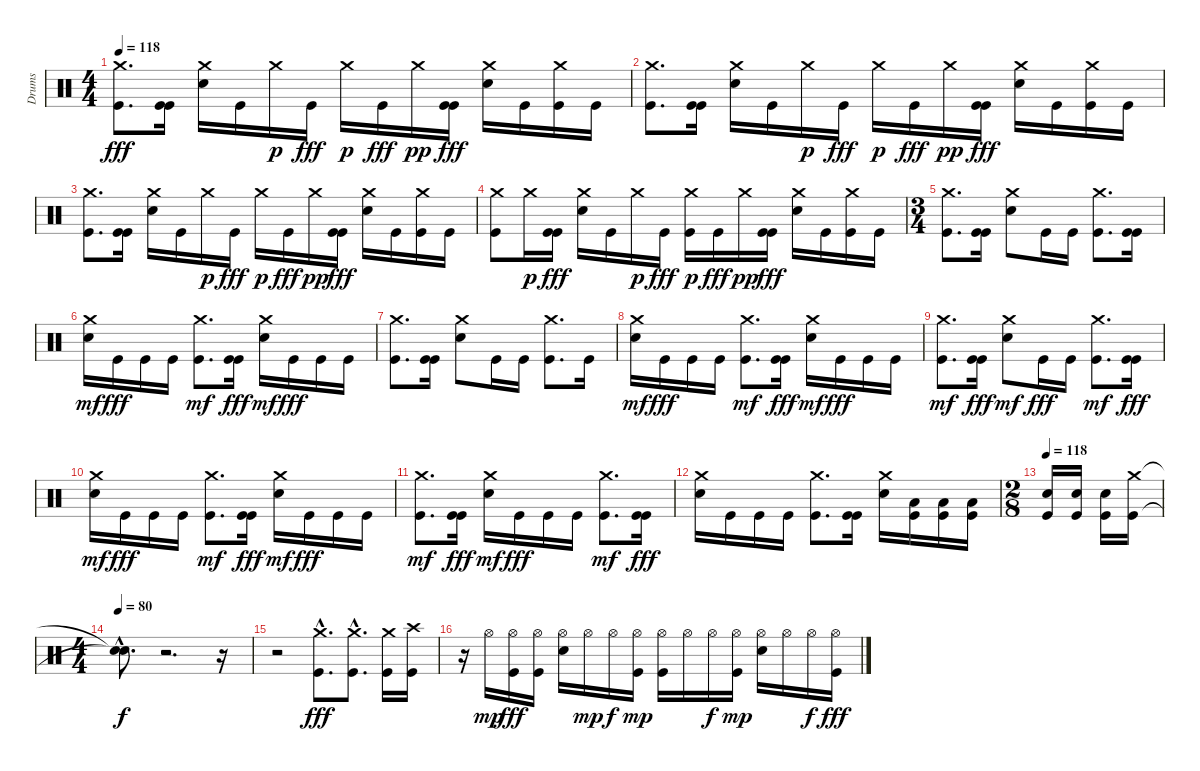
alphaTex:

\track ("Drums" "Drums") {instrument percussion}
\staff {score}
\articulation defaults
\ts (4 4)
\tempo 118
\clef neutral
\ks c
("Crash medium (hit)" "Kick (hit)").8{d dy fff} ("Kick (hit)" "Kick (hit)").16 ("Crash medium (hit)" "Electric Snare (hit)").16 "Kick (hit)".16 "Crash medium (hit)".16{dy p} "Kick (hit)".16{dy fff} "Crash medium (hit)".16{dy p} "Kick (hit)".16{dy fff} "Crash medium (hit)".16{dy pp} ("Kick (hit)" "Kick (hit)").16{dy fff} ("Crash medium (hit)" "Electric Snare (hit)").16 "Kick (hit)".16 ("Crash medium (hit)" "Kick (hit)").16 "Kick (hit)".16 |
("Crash medium (hit)" "Kick (hit)").8{d} ("Kick (hit)" "Kick (hit)").16 ("Crash medium (hit)" "Electric Snare (hit)").16 "Kick (hit)".16 "Crash medium (hit)".16{dy p} "Kick (hit)".16{dy fff} "Crash medium (hit)".16{dy p} "Kick (hit)".16{dy fff} "Crash medium (hit)".16{dy pp} ("Kick (hit)" "Kick (hit)").16{dy fff} ("Crash medium (hit)" "Electric Snare (hit)").16 "Kick (hit)".16 ("Crash medium (hit)" "Kick (hit)").16 "Kick (hit)".16 |
("Crash medium (hit)" "Kick (hit)").8{d} ("Kick (hit)" "Kick (hit)").16 ("Crash medium (hit)" "Electric Snare (hit)").16 "Kick (hit)".16 "Crash medium (hit)".16{dy p} "Kick (hit)".16{dy fff} "Crash medium (hit)".16{dy p} "Kick (hit)".16{dy fff} "Crash medium (hit)".16{dy pp} ("Kick (hit)" "Kick (hit)").16{dy fff} ("Crash medium (hit)" "Electric Snare (hit)").16 "Kick (hit)".16 ("Crash medium (hit)" "Kick (hit)").16 "Kick (hit)".16 |
("Crash medium (hit)" "Kick (hit)").8 "Crash medium (hit)".16{dy p} ("Kick (hit)" "Kick (hit)").16{dy fff} ("Crash medium (hit)" "Electric Snare (hit)").16 "Kick (hit)".16 "Crash medium (hit)".16{dy p} "Kick (hit)".16{dy fff} ("Kick (hit)" "Crash medium (hit)").16{dy p} "Kick (hit)".16{dy fff} "Crash medium (hit)".16{dy pp} ("Kick (hit)" "Kick (hit)").16{dy fff} ("Crash medium (hit)" "Electric Snare (hit)").16 "Kick (hit)".16 ("Crash medium (hit)" "Kick (hit)").16 "Kick (hit)".16 |
\ts (3 4)
("Crash medium (hit)" "Kick (hit)").8{d} ("Kick (hit)" "Kick (hit)").16 ("Crash medium (hit)" "Electric Snare (hit)").8 "Kick (hit)".16 "Kick (hit)".16 ("Crash medium (hit)" "Kick (hit)").8{d} ("Kick (hit)" "Kick (hit)").16 |
("Electric Snare (hit)" "Crash medium (hit)").16{dy mf} "Kick (hit)".16{dy fff} "Kick (hit)".16 "Kick (hit)".16 ("Kick (hit)" "Crash medium (hit)").8{d dy mf} ("Kick (hit)" "Kick (hit)").16{dy fff} ("Electric Snare (hit)" "Crash medium (hit)").16{dy mf} "Kick (hit)".16{dy fff} "Kick (hit)".16 "Kick (hit)".16 |
("Crash medium (hit)" "Kick (hit)").8{d} ("Kick (hit)" "Kick (hit)").16 ("Crash medium (hit)" "Electric Snare (hit)").8 "Kick (hit)".16 "Kick (hit)".16 ("Crash medium (hit)" "Kick (hit)").8{d} "Kick (hit)".16 |
("Electric Snare (hit)" "Crash medium (hit)").16{dy mf} "Kick (hit)".16{dy fff} "Kick (hit)".16 "Kick (hit)".16 ("Kick (hit)" "Crash medium (hit)").8{d dy mf} ("Kick (hit)" "Kick (hit)").16{dy fff} ("Electric Snare (hit)" "Crash medium (hit)").16{dy mf} "Kick (hit)".16{dy fff} "Kick (hit)".16 "Kick (hit)".16 |
("Kick (hit)" "Crash medium (hit)").8{d dy mf} ("Kick (hit)" "Kick (hit)").16{dy fff} ("Electric Snare (hit)" "Crash medium (hit)").8{dy mf} "Kick (hit)".16{dy fff} "Kick (hit)".16 ("Kick (hit)" "Crash medium (hit)").8{d dy mf} ("Kick (hit)" "Kick (hit)").16{dy fff} |
("Electric Snare (hit)" "Crash medium (hit)").16{dy mf} "Kick (hit)".16{dy fff} "Kick (hit)".16 "Kick (hit)".16 ("Kick (hit)" "Crash medium (hit)").8{d dy mf} ("Kick (hit)" "Kick (hit)").16{dy fff} ("Electric Snare (hit)" "Crash medium (hit)").16{dy mf} "Kick (hit)".16{dy fff} "Kick (hit)".16 "Kick (hit)".16 |
("Kick (hit)" "Crash medium (hit)").8{d dy mf} ("Kick (hit)" "Kick (hit)").16{dy fff} ("Electric Snare (hit)" "Crash medium (hit)").16{dy mf} "Kick (hit)".16{dy fff} "Kick (hit)".16 "Kick (hit)".16 ("Kick (hit)" "Crash medium (hit)").8{d dy mf} ("Kick (hit)" "Kick (hit)").16{dy fff} |
("Crash medium (hit)" "Electric Snare (hit)").16 "Kick (hit)".16 "Kick (hit)".16 "Kick (hit)".16 ("Crash medium (hit)" "Kick (hit)").8{d} ("Kick (hit)" "Kick (hit)").16 ("Crash medium (hit)" "Electric Snare (hit)").16 ("Low Floor Tom (hit)" "Kick (hit)").16 ("Low Floor Tom (hit)" "Kick (hit)").16 ("Kick (hit)" "Low Floor Tom (hit)").16 |
\ts (2 8)
\tempo 118
("Kick (hit)" "Electric Snare (hit)").16 ("Kick (hit)" "Electric Snare (hit)").16 ("Kick (hit)" "Electric Snare (hit)").16 ("Kick (hit)" "Crash medium (hit)").16 |
\ts (4 4)
\tempo 80
("Snare (hit)"{hac t} "Snare (hit)"{hac t}).8{d dy f} r.2{d} r.16 |
r.2 ("Kick (hit)"{hac} "Crash medium (hit)").8{d dy fff} ("Kick (hit)"{hac} "Crash medium (hit)").8{d} ("Kick (hit)" "Crash medium (hit)").16 ("Kick (hit)" "Crash high (hit)").16 |
r.16 "Hi-Hat (open)".16{dy mp} ("Hi-Hat (open)" "Kick (hit)").16{dy fff} ("Hi-Hat (open)" "Kick (hit)").16 ("Hi-Hat (open)" "Electric Snare (hit)").16 "Hi-Hat (open)".16{dy mp} "Hi-Hat (open)".16{dy f} ("Kick (hit)" "Hi-Hat (open)").16{dy mp} ("Kick (hit)" "Hi-Hat (open)").16 "Hi-Hat (open)".16 "Hi-Hat (open)".16{dy f} ("Kick (hit)" "Hi-Hat (open)").16{dy mp} ("Electric Snare (hit)" "Hi-Hat (open)").16 "Hi-Hat (open)".16 "Hi-Hat (open)".16{dy f} ("Hi-Hat (open)" "Kick (hit)").16{dy fff}
